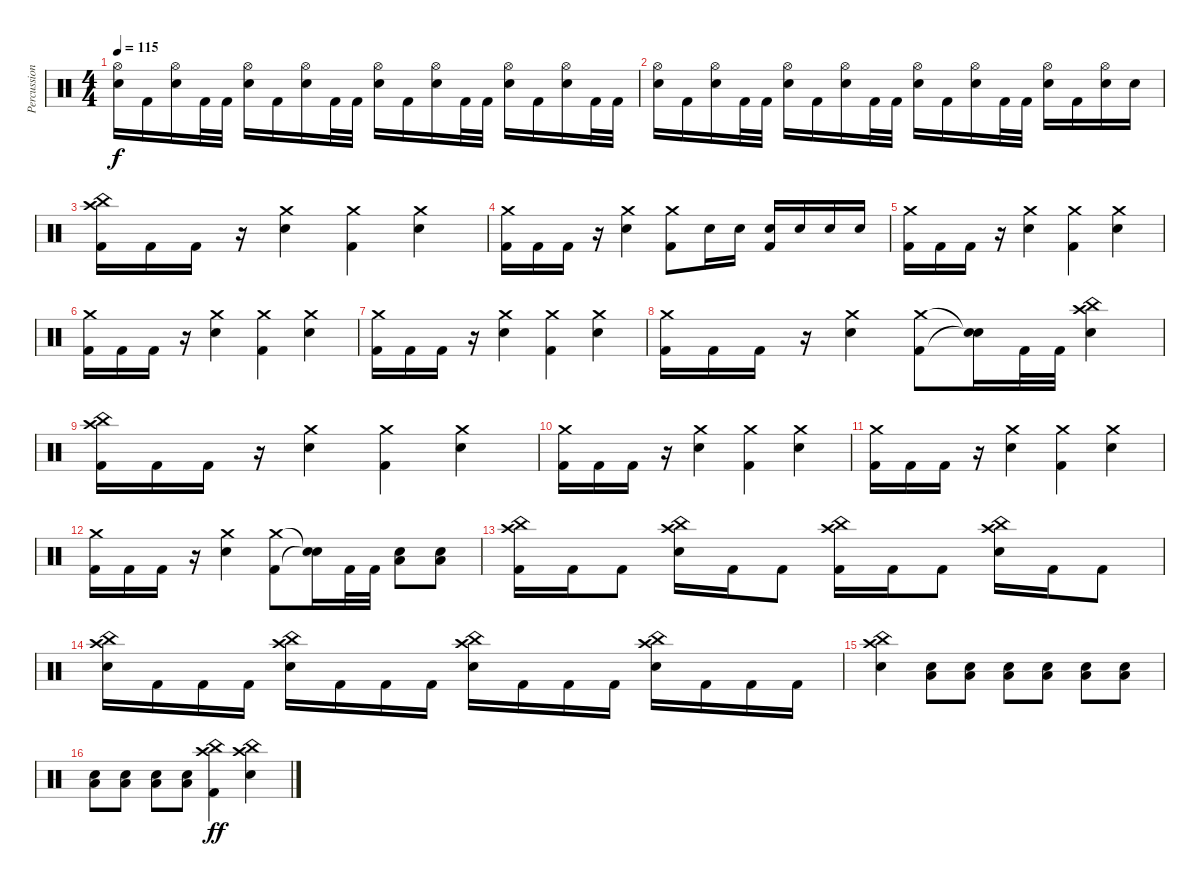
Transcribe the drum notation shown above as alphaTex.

\track ("Percussion" "Percussion") {instrument percussion}
\staff {score}
\articulation defaults
\ts (4 4)
\tempo 115
\clef neutral
\ks c
("Electric Snare (hit)" "Hi-Hat (open)").16{dy f} "Kick (hit) 2".16 ("Electric Snare (hit)" "Hi-Hat (open)").16 "Kick (hit) 2".32 "Kick (hit) 2".32 ("Electric Snare (hit)" "Hi-Hat (open)").16 "Kick (hit) 2".16 ("Electric Snare (hit)" "Hi-Hat (open)").16 "Kick (hit) 2".32 "Kick (hit) 2".32 ("Electric Snare (hit)" "Hi-Hat (open)").16 "Kick (hit) 2".16 ("Electric Snare (hit)" "Hi-Hat (open)").16 "Kick (hit) 2".32 "Kick (hit) 2".32 ("Electric Snare (hit)" "Hi-Hat (open)").16 "Kick (hit) 2".16 ("Electric Snare (hit)" "Hi-Hat (open)").16 "Kick (hit) 2".32 "Kick (hit) 2".32 |
("Electric Snare (hit)" "Hi-Hat (open)").16 "Kick (hit) 2".16 ("Electric Snare (hit)" "Hi-Hat (open)").16 "Kick (hit) 2".32 "Kick (hit) 2".32 ("Electric Snare (hit)" "Hi-Hat (open)").16 "Kick (hit) 2".16 ("Electric Snare (hit)" "Hi-Hat (open)").16 "Kick (hit) 2".32 "Kick (hit) 2".32 ("Electric Snare (hit)" "Hi-Hat (open)").16 "Kick (hit) 2".16 ("Electric Snare (hit)" "Hi-Hat (open)").16 "Kick (hit) 2".32 "Kick (hit) 2".32 ("Electric Snare (hit)" "Hi-Hat (open)").16 "Kick (hit) 2".16 ("Electric Snare (hit)" "Hi-Hat (open)").16 "Electric Snare (hit)".16 |
("Kick (hit) 2" "Crash high (hit)" "China (hit)").16 "Kick (hit) 2".16 "Kick (hit) 2".16 r.16 ("Electric Snare (hit)" "Crash medium (hit)").4 ("Kick (hit) 2" "Crash medium (hit)").4 ("Electric Snare (hit)" "Crash medium (hit)").4 |
("Kick (hit) 2" "Crash medium (hit)").16 "Kick (hit) 2".16 "Kick (hit) 2".16 r.16 ("Electric Snare (hit)" "Crash medium (hit)").4 ("Kick (hit) 2" "Crash medium (hit)").8 "Electric Snare (hit)".16 "Electric Snare (hit)".16 ("Electric Snare (hit)" "Kick (hit) 2").16 "Electric Snare (hit)".16 "Electric Snare (hit)".16 "Electric Snare (hit)".16 |
("Kick (hit) 2" "Crash medium (hit)").16 "Kick (hit) 2".16 "Kick (hit) 2".16 r.16 ("Electric Snare (hit)" "Crash medium (hit)").4 ("Kick (hit) 2" "Crash medium (hit)").4 ("Electric Snare (hit)" "Crash medium (hit)").4 |
("Kick (hit) 2" "Crash medium (hit)").16 "Kick (hit) 2".16 "Kick (hit) 2".16 r.16 ("Electric Snare (hit)" "Crash medium (hit)").4 ("Kick (hit) 2" "Crash medium (hit)").4 ("Electric Snare (hit)" "Crash medium (hit)").4 |
("Kick (hit) 2" "Crash medium (hit)").16 "Kick (hit) 2".16 "Kick (hit) 2".16 r.16 ("Electric Snare (hit)" "Crash medium (hit)").4 ("Kick (hit) 2" "Crash medium (hit)").4 ("Electric Snare (hit)" "Crash medium (hit)").4 |
("Kick (hit) 2" "Crash medium (hit)").16 "Kick (hit) 2".16 "Kick (hit) 2".16 r.16 ("Electric Snare (hit)" "Crash medium (hit)").4 ("Kick (hit) 2" "Crash medium (hit)").8 ("Snare (hit)"{t} "Snare (hit)"{t}).16 "Kick (hit) 2".32 "Kick (hit) 2".32 ("Electric Snare (hit)" "Crash high (hit)" "China (hit)").4 |
("Kick (hit) 2" "Crash high (hit)" "China (hit)").16 "Kick (hit) 2".16 "Kick (hit) 2".16 r.16 ("Electric Snare (hit)" "Crash medium (hit)").4 ("Kick (hit) 2" "Crash medium (hit)").4 ("Electric Snare (hit)" "Crash medium (hit)").4 |
("Kick (hit) 2" "Crash medium (hit)").16 "Kick (hit) 2".16 "Kick (hit) 2".16 r.16 ("Electric Snare (hit)" "Crash medium (hit)").4 ("Kick (hit) 2" "Crash medium (hit)").4 ("Electric Snare (hit)" "Crash medium (hit)").4 |
("Kick (hit) 2" "Crash medium (hit)").16 "Kick (hit) 2".16 "Kick (hit) 2".16 r.16 ("Electric Snare (hit)" "Crash medium (hit)").4 ("Kick (hit) 2" "Crash medium (hit)").4 ("Electric Snare (hit)" "Crash medium (hit)").4 |
("Kick (hit) 2" "Crash medium (hit)").16 "Kick (hit) 2".16 "Kick (hit) 2".16 r.16 ("Electric Snare (hit)" "Crash medium (hit)").4 ("Kick (hit) 2" "Crash medium (hit)").8 ("Snare (hit)"{t} "Snare (hit)"{t}).16 "Kick (hit) 2".32 "Kick (hit) 2".32 ("Electric Snare (hit)" "Low Tom (hit)").8 ("Electric Snare (hit)" "Low Tom (hit)").8 |
("Kick (hit) 2" "Crash high (hit)" "China (hit)").16 "Kick (hit) 2".16 "Kick (hit) 2".8 ("Electric Snare (hit)" "Crash high (hit)" "China (hit)").16 "Kick (hit) 2".16 "Kick (hit) 2".8 ("Kick (hit) 2" "Crash high (hit)" "China (hit)").16 "Kick (hit) 2".16 "Kick (hit) 2".8 ("Electric Snare (hit)" "Crash high (hit)" "China (hit)").16 "Kick (hit) 2".16 "Kick (hit) 2".8 |
("Electric Snare (hit)" "Crash high (hit)" "China (hit)").16 "Kick (hit) 2".16 "Kick (hit) 2".16 "Kick (hit) 2".16 ("Electric Snare (hit)" "Crash high (hit)" "China (hit)").16 "Kick (hit) 2".16 "Kick (hit) 2".16 "Kick (hit) 2".16 ("Electric Snare (hit)" "Crash high (hit)" "China (hit)").16 "Kick (hit) 2".16 "Kick (hit) 2".16 "Kick (hit) 2".16 ("Electric Snare (hit)" "Crash high (hit)" "China (hit)").16 "Kick (hit) 2".16 "Kick (hit) 2".16 "Kick (hit) 2".16 |
("Electric Snare (hit)" "Crash high (hit)" "China (hit)").4 ("Electric Snare (hit)" "Low Tom (hit)").8 ("Electric Snare (hit)" "Low Tom (hit)").8 ("Electric Snare (hit)" "Low Tom (hit)").8 ("Electric Snare (hit)" "Low Tom (hit)").8 ("Electric Snare (hit)" "Low Tom (hit)").8 ("Electric Snare (hit)" "Low Tom (hit)").8 |
("Electric Snare (hit)" "Low Tom (hit)").8 ("Electric Snare (hit)" "Low Tom (hit)").8 ("Electric Snare (hit)" "Low Tom (hit)").8 ("Electric Snare (hit)" "Low Tom (hit)").8 ("Kick (hit) 2" "Crash high (hit)" "China (hit)").4{dy ff} ("Electric Snare (hit)" "Crash high (hit)" "China (hit)").4
